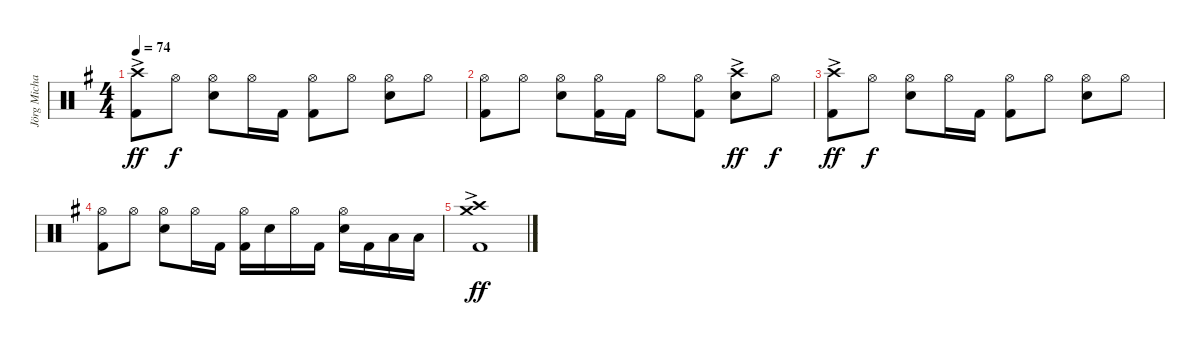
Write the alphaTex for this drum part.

\track ("Jörg Michael" "Jörg Micha") {instrument percussion}
\staff {score}
\articulation defaults
\ts (4 4)
\tempo 74
\clef neutral
\ks g
("Crash high (hit)"{ac} "Kick (hit) 2"{ac}).8{dy ff} "Hi-Hat (open)".8{dy f} ("Hi-Hat (open)" "Electric Snare (hit)").8 "Hi-Hat (open)".16 "Kick (hit) 2".16 ("Hi-Hat (open)" "Kick (hit) 2").8 "Hi-Hat (open)".8 ("Hi-Hat (open)" "Electric Snare (hit)").8 "Hi-Hat (open)".8 |
("Hi-Hat (open)" "Kick (hit) 2").8 "Hi-Hat (open)".8 ("Hi-Hat (open)" "Electric Snare (hit)").8 ("Hi-Hat (open)" "Kick (hit) 2").16 "Kick (hit) 2".16 "Hi-Hat (open)".8 ("Hi-Hat (open)" "Kick (hit) 2").8 ("Crash high (hit)"{ac} "Electric Snare (hit)"{ac}).8{dy ff} "Hi-Hat (open)".8{dy f} |
("Crash high (hit)"{ac} "Kick (hit) 2"{ac}).8{dy ff} "Hi-Hat (open)".8{dy f} ("Hi-Hat (open)" "Electric Snare (hit)").8 "Hi-Hat (open)".16 "Kick (hit) 2".16 ("Hi-Hat (open)" "Kick (hit) 2").8 "Hi-Hat (open)".8 ("Hi-Hat (open)" "Electric Snare (hit)").8 "Hi-Hat (open)".8 |
("Hi-Hat (open)" "Kick (hit) 2").8 "Hi-Hat (open)".8 ("Hi-Hat (open)" "Electric Snare (hit)").8 "Hi-Hat (open)".16 "Kick (hit) 2".16 ("Hi-Hat (open)" "Kick (hit) 2").16 "Electric Snare (hit)".16 "Hi-Hat (open)".16 "Kick (hit) 2".16 ("Hi-Hat (open)" "Electric Snare (hit)").16 "Kick (hit) 2".16 "Low Tom (hit)".16 "Low Tom (hit)".16 |
("Crash high (hit)"{ac} "Kick (hit) 2"{ac} "Crash medium (hit)"{ac}).1{dy ff}
